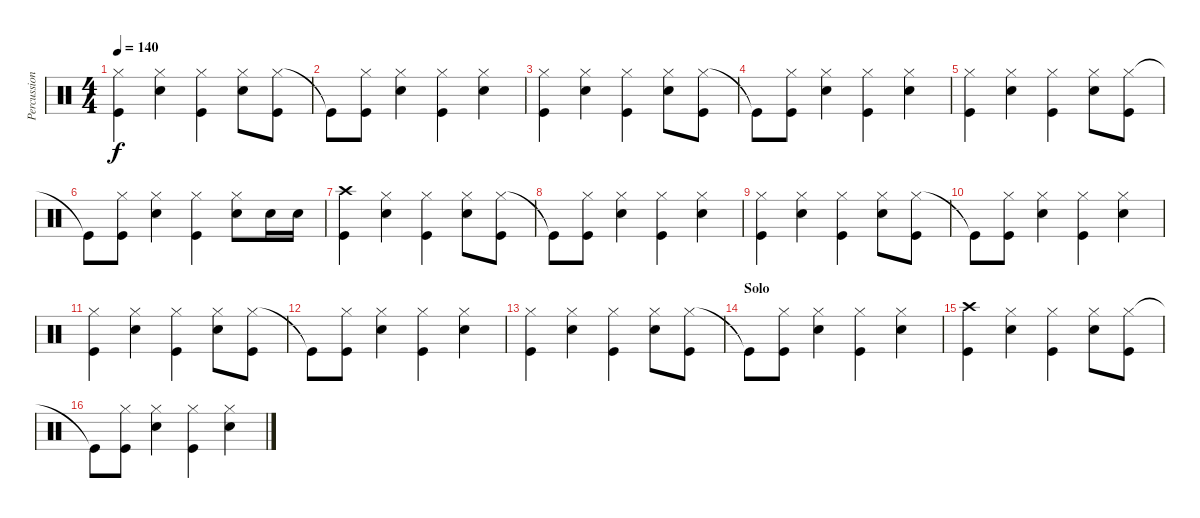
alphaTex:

\track ("Percussion" "Percussion") {instrument percussion}
\staff {score}
\articulation defaults
\ts (4 4)
\tempo 140
\clef neutral
\ks c
("Hi-Hat (closed)" "Kick (hit)").4{dy f} ("Hi-Hat (closed)" "Snare (hit) 2").4 ("Hi-Hat (closed)" "Kick (hit)").4 ("Hi-Hat (closed)" "Snare (hit) 2").8 ("Hi-Hat (closed)" "Kick (hit)").8 |
"Kick (hit)"{t}.8 ("Hi-Hat (closed)" "Kick (hit)").8 ("Hi-Hat (closed)" "Snare (hit) 2").4 ("Hi-Hat (closed)" "Kick (hit)").4 ("Hi-Hat (closed)" "Snare (hit) 2").4 |
("Hi-Hat (closed)" "Kick (hit)").4 ("Hi-Hat (closed)" "Snare (hit) 2").4 ("Hi-Hat (closed)" "Kick (hit)").4 ("Hi-Hat (closed)" "Snare (hit) 2").8 ("Hi-Hat (closed)" "Kick (hit)").8 |
"Kick (hit)"{t}.8 ("Hi-Hat (closed)" "Kick (hit)").8 ("Hi-Hat (closed)" "Snare (hit) 2").4 ("Hi-Hat (closed)" "Kick (hit)").4 ("Hi-Hat (closed)" "Snare (hit) 2").4 |
("Hi-Hat (closed)" "Kick (hit)").4 ("Hi-Hat (closed)" "Snare (hit) 2").4 ("Hi-Hat (closed)" "Kick (hit)").4 ("Hi-Hat (closed)" "Snare (hit) 2").8 ("Hi-Hat (closed)" "Kick (hit)").8 |
"Kick (hit)"{t}.8 ("Hi-Hat (closed)" "Kick (hit)").8 ("Hi-Hat (closed)" "Snare (hit) 2").4 ("Hi-Hat (closed)" "Kick (hit)").4 ("Hi-Hat (closed)" "Snare (hit) 2").8 "Snare (hit) 2".16 "Snare (hit) 2".16 |
("Crash high (hit)" "Kick (hit)").4 ("Hi-Hat (closed)" "Snare (hit) 2").4 ("Hi-Hat (closed)" "Kick (hit)").4 ("Hi-Hat (closed)" "Snare (hit) 2").8 ("Hi-Hat (closed)" "Kick (hit)").8 |
"Kick (hit)"{t}.8 ("Hi-Hat (closed)" "Kick (hit)").8 ("Hi-Hat (closed)" "Snare (hit) 2").4 ("Hi-Hat (closed)" "Kick (hit)").4 ("Hi-Hat (closed)" "Snare (hit) 2").4 |
("Hi-Hat (closed)" "Kick (hit)").4 ("Hi-Hat (closed)" "Snare (hit) 2").4 ("Hi-Hat (closed)" "Kick (hit)").4 ("Hi-Hat (closed)" "Snare (hit) 2").8 ("Hi-Hat (closed)" "Kick (hit)").8 |
"Kick (hit)"{t}.8 ("Hi-Hat (closed)" "Kick (hit)").8 ("Hi-Hat (closed)" "Snare (hit) 2").4 ("Hi-Hat (closed)" "Kick (hit)").4 ("Hi-Hat (closed)" "Snare (hit) 2").4 |
("Hi-Hat (closed)" "Kick (hit)").4 ("Hi-Hat (closed)" "Snare (hit) 2").4 ("Hi-Hat (closed)" "Kick (hit)").4 ("Hi-Hat (closed)" "Snare (hit) 2").8 ("Hi-Hat (closed)" "Kick (hit)").8 |
"Kick (hit)"{t}.8 ("Hi-Hat (closed)" "Kick (hit)").8 ("Hi-Hat (closed)" "Snare (hit) 2").4 ("Hi-Hat (closed)" "Kick (hit)").4 ("Hi-Hat (closed)" "Snare (hit) 2").4 |
("Hi-Hat (closed)" "Kick (hit)").4 ("Hi-Hat (closed)" "Snare (hit) 2").4 ("Hi-Hat (closed)" "Kick (hit)").4 ("Hi-Hat (closed)" "Snare (hit) 2").8 ("Hi-Hat (closed)" "Kick (hit)").8 |
\section ("" "Solo")
"Kick (hit)"{t}.8 ("Hi-Hat (closed)" "Kick (hit)").8 ("Hi-Hat (closed)" "Snare (hit) 2").4 ("Hi-Hat (closed)" "Kick (hit)").4 ("Hi-Hat (closed)" "Snare (hit) 2").4 |
("Crash high (hit)" "Kick (hit)").4 ("Hi-Hat (closed)" "Snare (hit) 2").4 ("Hi-Hat (closed)" "Kick (hit)").4 ("Hi-Hat (closed)" "Snare (hit) 2").8 ("Hi-Hat (closed)" "Kick (hit)").8 |
"Kick (hit)"{t}.8 ("Hi-Hat (closed)" "Kick (hit)").8 ("Hi-Hat (closed)" "Snare (hit) 2").4 ("Hi-Hat (closed)" "Kick (hit)").4 ("Hi-Hat (closed)" "Snare (hit) 2").4
